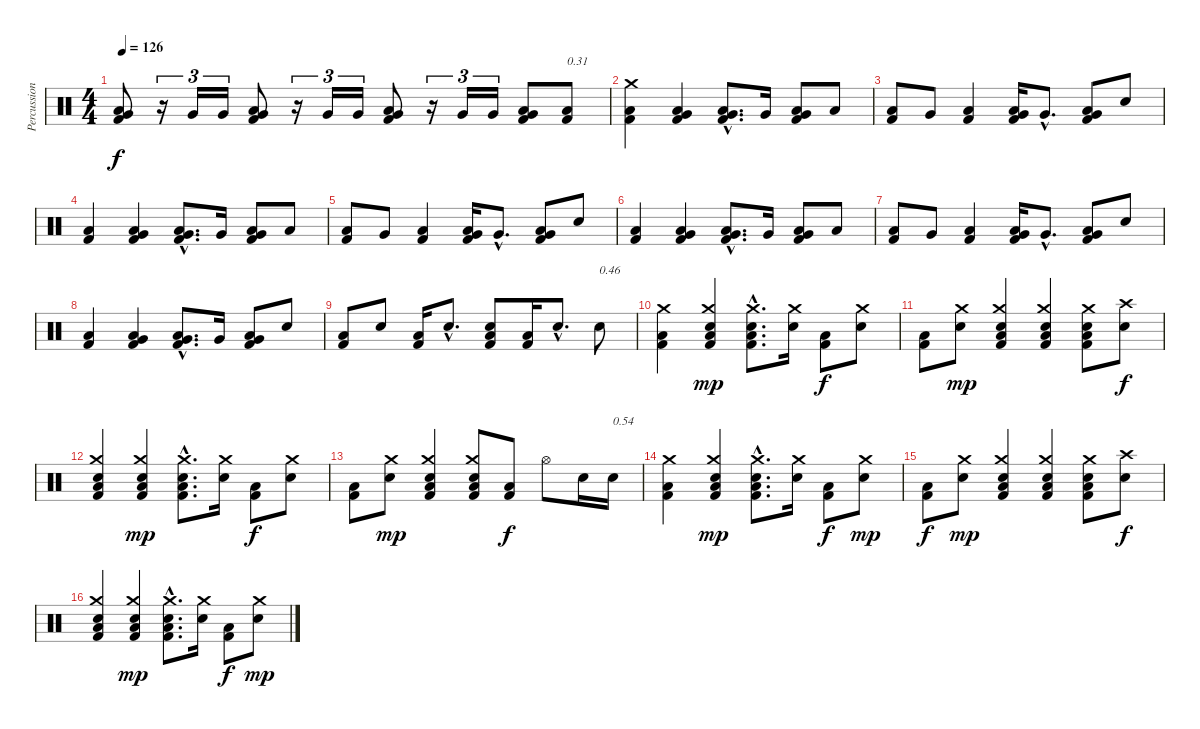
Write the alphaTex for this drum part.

\track ("Percussions" "Percussion") {instrument percussion}
\staff {score}
\articulation defaults
\ts (4 4)
\tempo 126
\clef neutral
\ks c
("Kick (hit) 2" "Low Floor Tom (hit)" "Very Low Tom (hit)").8{dy f} r.16{tu (3 2)} "Very Low Tom (hit)".16{tu (3 2)} "Very Low Tom (hit)".16{tu (3 2)} ("Kick (hit) 2" "Low Floor Tom (hit)" "Very Low Tom (hit)").8 r.16{tu (3 2)} "Very Low Tom (hit)".16{tu (3 2)} "Very Low Tom (hit)".16{tu (3 2)} ("Kick (hit) 2" "Low Floor Tom (hit)" "Very Low Tom (hit)").8 r.16{tu (3 2)} "Very Low Tom (hit)".16{tu (3 2)} "Very Low Tom (hit)".16{tu (3 2)} ("Kick (hit) 2" "Low Floor Tom (hit)" "Very Low Tom (hit)").8 ("Kick (hit) 2" "Low Floor Tom (hit)").8{txt "0.31"} |
("Kick (hit) 2" "Low Floor Tom (hit)" "Crash medium (hit)").4 ("Kick (hit) 2" "Low Floor Tom (hit)" "Very Low Tom (hit)").4 ("Kick (hit) 2"{hac} "Low Floor Tom (hit)"{hac} "Very Low Tom (hit)"{hac}).8{d} "Very Low Tom (hit)".16 ("Kick (hit) 2" "Low Floor Tom (hit)" "Very Low Tom (hit)").8 "Low Tom (hit)".8 |
("Kick (hit) 2" "Low Floor Tom (hit)").8 "Very Low Tom (hit)".8 ("Kick (hit) 2" "Low Floor Tom (hit)").4 ("Kick (hit) 2" "Low Floor Tom (hit)" "Very Low Tom (hit)").16 "Very Low Tom (hit)"{hac}.8{d} ("Kick (hit) 2" "Low Floor Tom (hit)" "Very Low Tom (hit)").8 "Snare (hit) 2".8 |
("Kick (hit) 2" "Low Floor Tom (hit)").4 ("Kick (hit) 2" "Low Floor Tom (hit)" "Very Low Tom (hit)").4 ("Kick (hit) 2"{hac} "Low Floor Tom (hit)"{hac} "Very Low Tom (hit)"{hac}).8{d} "Very Low Tom (hit)".16 ("Kick (hit) 2" "Low Floor Tom (hit)" "Very Low Tom (hit)").8 "Low Tom (hit)".8 |
("Kick (hit) 2" "Low Floor Tom (hit)").8 "Very Low Tom (hit)".8 ("Kick (hit) 2" "Low Floor Tom (hit)").4 ("Kick (hit) 2" "Low Floor Tom (hit)" "Very Low Tom (hit)").16 "Very Low Tom (hit)"{hac}.8{d} ("Kick (hit) 2" "Low Floor Tom (hit)" "Very Low Tom (hit)").8 "Snare (hit) 2".8 |
("Kick (hit) 2" "Low Floor Tom (hit)").4 ("Kick (hit) 2" "Low Floor Tom (hit)" "Very Low Tom (hit)").4 ("Kick (hit) 2"{hac} "Low Floor Tom (hit)"{hac} "Very Low Tom (hit)"{hac}).8{d} "Very Low Tom (hit)".16 ("Kick (hit) 2" "Low Floor Tom (hit)" "Very Low Tom (hit)").8 "Low Tom (hit)".8 |
("Kick (hit) 2" "Low Floor Tom (hit)").8 "Very Low Tom (hit)".8 ("Kick (hit) 2" "Low Floor Tom (hit)").4 ("Kick (hit) 2" "Low Floor Tom (hit)" "Very Low Tom (hit)").16 "Very Low Tom (hit)"{hac}.8{d} ("Kick (hit) 2" "Low Floor Tom (hit)" "Very Low Tom (hit)").8 "Snare (hit) 2".8 |
("Kick (hit) 2" "Low Floor Tom (hit)").4 ("Kick (hit) 2" "Low Floor Tom (hit)" "Very Low Tom (hit)").4 ("Kick (hit) 2"{hac} "Low Floor Tom (hit)"{hac} "Very Low Tom (hit)"{hac}).8{d} "Very Low Tom (hit)".16 ("Kick (hit) 2" "Low Floor Tom (hit)" "Very Low Tom (hit)").8 "Snare (hit) 2".8 |
("Kick (hit) 2" "Low Floor Tom (hit)").8 "Snare (hit) 2".8 ("Kick (hit) 2" "Low Floor Tom (hit)").16 "Snare (hit) 2"{hac}.8{d} ("Kick (hit) 2" "Low Floor Tom (hit)" "Snare (hit) 2").8 ("Kick (hit) 2" "Low Floor Tom (hit)").16 "Snare (hit) 2"{hac}.8{d} "Snare (hit) 2".8{txt "0.46"} |
("Kick (hit) 2" "Low Floor Tom (hit)" "Crash medium (hit)").4 ("Kick (hit) 2" "Low Floor Tom (hit)" "Snare (hit) 2" "Crash medium (hit)").4{dy mp} ("Kick (hit) 2"{hac} "Low Floor Tom (hit)"{hac} "Snare (hit) 2"{hac} "Crash medium (hit)"{hac}).8{d} ("Snare (hit) 2" "Crash medium (hit)").16 ("Kick (hit) 2" "Low Floor Tom (hit)").8{dy f} ("Snare (hit) 2" "Crash medium (hit)").8 |
("Kick (hit) 2" "Low Floor Tom (hit)").8 ("Snare (hit) 2" "Crash medium (hit)").8{dy mp} ("Kick (hit) 2" "Low Floor Tom (hit)" "Snare (hit) 2" "Crash medium (hit)").4 ("Kick (hit) 2" "Low Floor Tom (hit)" "Snare (hit) 2" "Crash medium (hit)").4 ("Kick (hit) 2" "Low Floor Tom (hit)" "Snare (hit) 2" "Crash medium (hit)").8 ("Snare (hit) 2" "Crash high (hit)").8{dy f} |
("Kick (hit) 2" "Low Floor Tom (hit)" "Snare (hit) 2" "Crash medium (hit)").4 ("Kick (hit) 2" "Low Floor Tom (hit)" "Snare (hit) 2" "Crash medium (hit)").4{dy mp} ("Kick (hit) 2"{hac} "Low Floor Tom (hit)"{hac} "Snare (hit) 2"{hac} "Crash medium (hit)"{hac}).8{d} ("Snare (hit) 2" "Crash medium (hit)").16 ("Kick (hit) 2" "Low Floor Tom (hit)").8{dy f} ("Snare (hit) 2" "Crash medium (hit)").8 |
("Kick (hit) 2" "Low Floor Tom (hit)").8 ("Snare (hit) 2" "Crash medium (hit)").8{dy mp} ("Kick (hit) 2" "Low Floor Tom (hit)" "Snare (hit) 2" "Crash medium (hit)").4 ("Kick (hit) 2" "Low Floor Tom (hit)" "Snare (hit) 2" "Crash medium (hit)").8 ("Kick (hit) 2" "Low Floor Tom (hit)").8{dy f} "Hi-Hat (open)".8 "Snare (hit) 2".16 "Snare (hit) 2".16{txt "0.54"} |
("Kick (hit) 2" "Low Floor Tom (hit)" "Crash medium (hit)").4 ("Kick (hit) 2" "Low Floor Tom (hit)" "Snare (hit) 2" "Crash medium (hit)").4{dy mp} ("Kick (hit) 2"{hac} "Low Floor Tom (hit)"{hac} "Snare (hit) 2"{hac} "Crash medium (hit)"{hac}).8{d} ("Snare (hit) 2" "Crash medium (hit)").16 ("Kick (hit) 2" "Low Floor Tom (hit)").8{dy f} ("Snare (hit) 2" "Crash medium (hit)").8{dy mp} |
("Kick (hit) 2" "Low Floor Tom (hit)").8{dy f} ("Snare (hit) 2" "Crash medium (hit)").8{dy mp} ("Kick (hit) 2" "Low Floor Tom (hit)" "Snare (hit) 2" "Crash medium (hit)").4 ("Kick (hit) 2" "Low Floor Tom (hit)" "Snare (hit) 2" "Crash medium (hit)").4 ("Kick (hit) 2" "Low Floor Tom (hit)" "Snare (hit) 2" "Crash medium (hit)").8 ("Snare (hit) 2" "Crash high (hit)").8{dy f} |
("Kick (hit) 2" "Low Floor Tom (hit)" "Snare (hit) 2" "Crash medium (hit)").4 ("Kick (hit) 2" "Low Floor Tom (hit)" "Snare (hit) 2" "Crash medium (hit)").4{dy mp} ("Kick (hit) 2"{hac} "Low Floor Tom (hit)"{hac} "Snare (hit) 2"{hac} "Crash medium (hit)"{hac}).8{d} ("Snare (hit) 2" "Crash medium (hit)").16 ("Kick (hit) 2" "Low Floor Tom (hit)").8{dy f} ("Snare (hit) 2" "Crash medium (hit)").8{dy mp}
